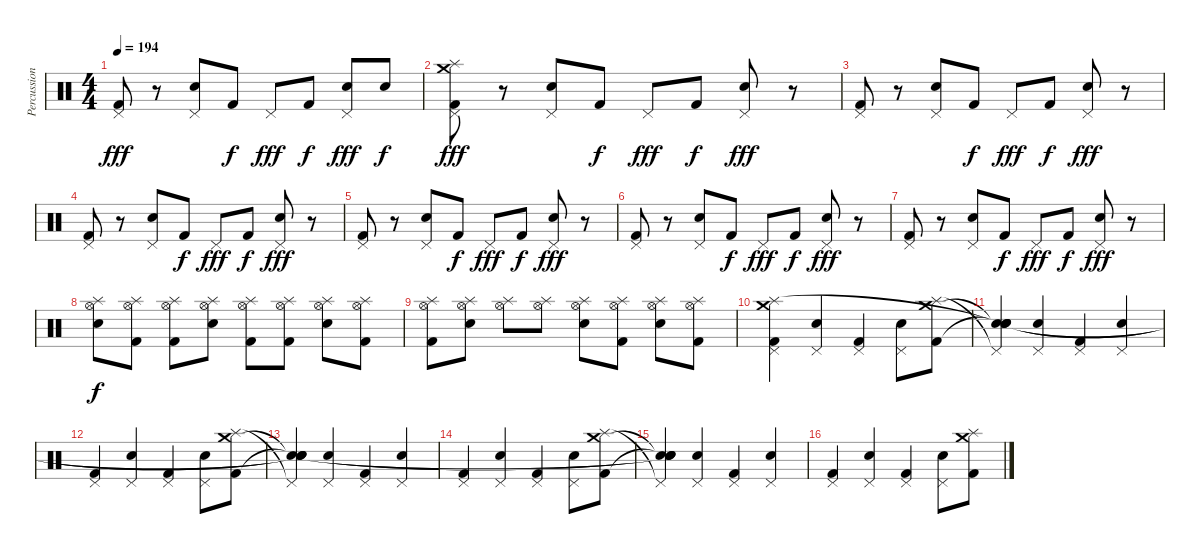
\track ("Percussion" "Percussion") {instrument percussion}
\staff {score}
\articulation defaults
\ts (4 4)
\tempo 194
\clef neutral
\ks c
("Kick (hit) 2" "Pedal Hi-Hat (hit)").8{dy fff} r.8 ("Electric Snare (hit)" "Pedal Hi-Hat (hit)").8 "Kick (hit) 2".8{dy f} "Pedal Hi-Hat (hit)".8{dy fff} "Kick (hit) 2".8{dy f} ("Electric Snare (hit)" "Pedal Hi-Hat (hit)").8{dy fff} "Electric Snare (hit)".8{dy f} |
("Kick (hit) 2" "Splash (hit)" "Pedal Hi-Hat (hit)" "Crash medium (hit)").8{dy fff} r.8 ("Electric Snare (hit)" "Pedal Hi-Hat (hit)").8 "Kick (hit) 2".8{dy f} "Pedal Hi-Hat (hit)".8{dy fff} "Kick (hit) 2".8{dy f} ("Electric Snare (hit)" "Pedal Hi-Hat (hit)").8{dy fff} r.8 |
("Kick (hit) 2" "Pedal Hi-Hat (hit)").8 r.8 ("Electric Snare (hit)" "Pedal Hi-Hat (hit)").8 "Kick (hit) 2".8{dy f} "Pedal Hi-Hat (hit)".8{dy fff} "Kick (hit) 2".8{dy f} ("Electric Snare (hit)" "Pedal Hi-Hat (hit)").8{dy fff} r.8 |
("Kick (hit) 2" "Pedal Hi-Hat (hit)").8 r.8 ("Electric Snare (hit)" "Pedal Hi-Hat (hit)").8 "Kick (hit) 2".8{dy f} "Pedal Hi-Hat (hit)".8{dy fff} "Kick (hit) 2".8{dy f} ("Electric Snare (hit)" "Pedal Hi-Hat (hit)").8{dy fff} r.8 |
("Kick (hit) 2" "Pedal Hi-Hat (hit)").8 r.8 ("Electric Snare (hit)" "Pedal Hi-Hat (hit)").8 "Kick (hit) 2".8{dy f} "Pedal Hi-Hat (hit)".8{dy fff} "Kick (hit) 2".8{dy f} ("Electric Snare (hit)" "Pedal Hi-Hat (hit)").8{dy fff} r.8 |
("Kick (hit) 2" "Pedal Hi-Hat (hit)").8 r.8 ("Electric Snare (hit)" "Pedal Hi-Hat (hit)").8 "Kick (hit) 2".8{dy f} "Pedal Hi-Hat (hit)".8{dy fff} "Kick (hit) 2".8{dy f} ("Electric Snare (hit)" "Pedal Hi-Hat (hit)").8{dy fff} r.8 |
("Kick (hit) 2" "Pedal Hi-Hat (hit)").8 r.8 ("Electric Snare (hit)" "Pedal Hi-Hat (hit)").8 "Kick (hit) 2".8{dy f} "Pedal Hi-Hat (hit)".8{dy fff} "Kick (hit) 2".8{dy f} ("Electric Snare (hit)" "Pedal Hi-Hat (hit)").8{dy fff} r.8 |
("Electric Snare (hit)" "Hi-Hat (open)" "Splash (hit)").8{dy f} ("Kick (hit) 2" "Hi-Hat (open)" "Splash (hit)").8 ("Kick (hit) 2" "Hi-Hat (open)" "Splash (hit)").8 ("Electric Snare (hit)" "Hi-Hat (open)" "Splash (hit)").8 ("Kick (hit) 2" "Hi-Hat (open)" "Splash (hit)").8 ("Kick (hit) 2" "Hi-Hat (open)" "Splash (hit)").8 ("Electric Snare (hit)" "Hi-Hat (open)" "Splash (hit)").8 ("Kick (hit) 2" "Hi-Hat (open)" "Splash (hit)").8 |
("Kick (hit) 2" "Hi-Hat (open)" "Splash (hit)").8 ("Electric Snare (hit)" "Hi-Hat (open)" "Splash (hit)").8 ("Hi-Hat (open)" "Splash (hit)").8 ("Hi-Hat (open)" "Splash (hit)").8 ("Electric Snare (hit)" "Hi-Hat (open)" "Splash (hit)").8 ("Kick (hit) 2" "Hi-Hat (open)" "Splash (hit)").8 ("Electric Snare (hit)" "Hi-Hat (open)" "Splash (hit)").8 ("Kick (hit) 2" "Hi-Hat (open)" "Splash (hit)").8 |
("Kick (hit) 2" "Pedal Hi-Hat (hit)" "Crash medium (hit)" "Splash (hit)").4 ("Electric Snare (hit)" "Pedal Hi-Hat (hit)").4 ("Kick (hit) 2" "Pedal Hi-Hat (hit)").4 ("Electric Snare (hit)" "Pedal Hi-Hat (hit)").8 ("Kick (hit) 2" "Crash medium (hit)" "Splash (hit)").8 |
("Snare (hit)"{t} "Snare (hit)"{t} "Pedal Hi-Hat (hit)"{t} "Snare (hit)"{t} "Snare (hit)").4 ("Electric Snare (hit)" "Pedal Hi-Hat (hit)").4 ("Kick (hit) 2" "Pedal Hi-Hat (hit)").4 ("Electric Snare (hit)" "Pedal Hi-Hat (hit)").4 |
("Kick (hit) 2" "Pedal Hi-Hat (hit)").4 ("Electric Snare (hit)" "Pedal Hi-Hat (hit)").4 ("Kick (hit) 2" "Pedal Hi-Hat (hit)").4 ("Electric Snare (hit)" "Pedal Hi-Hat (hit)").8 ("Kick (hit) 2" "Crash medium (hit)" "Splash (hit)").8 |
("Snare (hit)"{t} "Snare (hit)"{t} "Pedal Hi-Hat (hit)"{t} "Snare (hit)"{t} "Snare (hit)"{t}).4 ("Electric Snare (hit)" "Pedal Hi-Hat (hit)").4 ("Kick (hit) 2" "Pedal Hi-Hat (hit)").4 ("Electric Snare (hit)" "Pedal Hi-Hat (hit)").4 |
("Kick (hit) 2" "Pedal Hi-Hat (hit)").4 ("Electric Snare (hit)" "Pedal Hi-Hat (hit)").4 ("Kick (hit) 2" "Pedal Hi-Hat (hit)").4 ("Electric Snare (hit)" "Pedal Hi-Hat (hit)").8 ("Kick (hit) 2" "Crash medium (hit)" "Splash (hit)").8 |
("Snare (hit)"{t} "Snare (hit)"{t} "Pedal Hi-Hat (hit)"{t} "Snare (hit)"{t} "Snare (hit)"{t}).4 ("Electric Snare (hit)" "Pedal Hi-Hat (hit)").4 ("Kick (hit) 2" "Pedal Hi-Hat (hit)").4 ("Electric Snare (hit)" "Pedal Hi-Hat (hit)").4 |
("Kick (hit) 2" "Pedal Hi-Hat (hit)").4 ("Electric Snare (hit)" "Pedal Hi-Hat (hit)").4 ("Kick (hit) 2" "Pedal Hi-Hat (hit)").4 ("Electric Snare (hit)" "Pedal Hi-Hat (hit)").8 ("Kick (hit) 2" "Crash medium (hit)" "Splash (hit)").8
